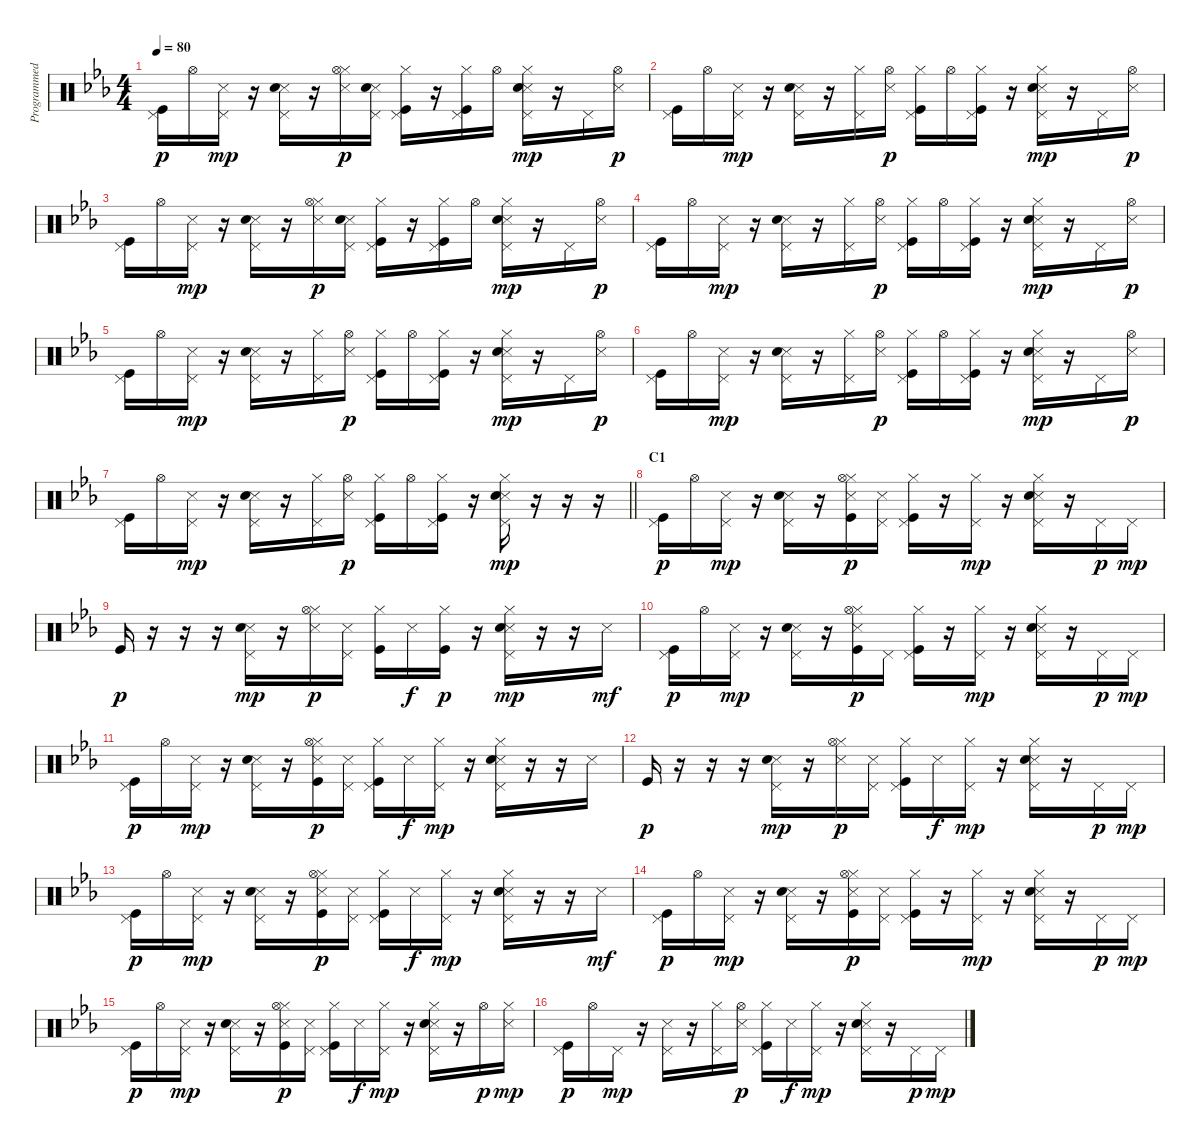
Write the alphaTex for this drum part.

\track ("Programmed Drum" "Programmed") {instrument percussion}
\staff {score}
\articulation defaults
\ts (4 4)
\tempo 80
\clef neutral
\ks eb
("Pedal Hi-Hat (hit)" "Kick (hit)").16{dy p} "Hi-Hat (open)".16 ("Snare (side stick) 3" "Pedal Hi-Hat (hit)").16{dy mp} r.16 ("Snare (side stick) 3" "Snare (hit) 2" "Pedal Hi-Hat (hit)").16 r.16 ("Hi-Hat (closed)" "Snare (side stick) 3" "Hi-Hat (open)").16{dy p} ("Snare (side stick) 3" "Snare (hit) 2" "Pedal Hi-Hat (hit)").16 ("Hi-Hat (closed)" "Pedal Hi-Hat (hit)" "Kick (hit)").16 r.16 ("Hi-Hat (closed)" "Pedal Hi-Hat (hit)" "Kick (hit)").16 "Hi-Hat (open)".16 ("Hi-Hat (closed)" "Snare (side stick) 3" "Snare (hit) 2" "Pedal Hi-Hat (hit)").16{dy mp} r.16 "Pedal Hi-Hat (hit)".16 ("Snare (side stick) 3" "Hi-Hat (open)").16{dy p} |
("Pedal Hi-Hat (hit)" "Kick (hit)").16 "Hi-Hat (open)".16 ("Snare (side stick) 3" "Pedal Hi-Hat (hit)").16{dy mp} r.16 ("Snare (side stick) 3" "Snare (hit) 2" "Pedal Hi-Hat (hit)").16 r.16 ("Hi-Hat (closed)" "Pedal Hi-Hat (hit)").16 ("Snare (side stick) 3" "Hi-Hat (open)").16{dy p} ("Hi-Hat (closed)" "Pedal Hi-Hat (hit)" "Kick (hit)").16 "Hi-Hat (open)".16 ("Hi-Hat (closed)" "Pedal Hi-Hat (hit)" "Kick (hit)").16 r.16 ("Hi-Hat (closed)" "Snare (side stick) 3" "Snare (hit) 2" "Pedal Hi-Hat (hit)").16{dy mp} r.16 "Pedal Hi-Hat (hit)".16 ("Snare (side stick) 3" "Hi-Hat (open)").16{dy p} |
("Pedal Hi-Hat (hit)" "Kick (hit)").16 "Hi-Hat (open)".16 ("Snare (side stick) 3" "Pedal Hi-Hat (hit)").16{dy mp} r.16 ("Snare (side stick) 3" "Snare (hit) 2" "Pedal Hi-Hat (hit)").16 r.16 ("Hi-Hat (closed)" "Snare (side stick) 3" "Hi-Hat (open)").16{dy p} ("Snare (side stick) 3" "Snare (hit) 2" "Pedal Hi-Hat (hit)").16 ("Hi-Hat (closed)" "Pedal Hi-Hat (hit)" "Kick (hit)").16 r.16 ("Hi-Hat (closed)" "Pedal Hi-Hat (hit)" "Kick (hit)").16 "Hi-Hat (open)".16 ("Hi-Hat (closed)" "Snare (side stick) 3" "Snare (hit) 2" "Pedal Hi-Hat (hit)").16{dy mp} r.16 "Pedal Hi-Hat (hit)".16 ("Snare (side stick) 3" "Hi-Hat (open)").16{dy p} |
("Pedal Hi-Hat (hit)" "Kick (hit)").16 "Hi-Hat (open)".16 ("Snare (side stick) 3" "Pedal Hi-Hat (hit)").16{dy mp} r.16 ("Snare (side stick) 3" "Snare (hit) 2" "Pedal Hi-Hat (hit)").16 r.16 ("Hi-Hat (closed)" "Pedal Hi-Hat (hit)").16 ("Snare (side stick) 3" "Hi-Hat (open)").16{dy p} ("Hi-Hat (closed)" "Pedal Hi-Hat (hit)" "Kick (hit)").16 "Hi-Hat (open)".16 ("Hi-Hat (closed)" "Pedal Hi-Hat (hit)" "Kick (hit)").16 r.16 ("Hi-Hat (closed)" "Snare (side stick) 3" "Snare (hit) 2" "Pedal Hi-Hat (hit)").16{dy mp} r.16 "Pedal Hi-Hat (hit)".16 ("Snare (side stick) 3" "Hi-Hat (open)").16{dy p} |
("Pedal Hi-Hat (hit)" "Kick (hit)").16 "Hi-Hat (open)".16 ("Snare (side stick) 3" "Pedal Hi-Hat (hit)").16{dy mp} r.16 ("Snare (side stick) 3" "Snare (hit) 2" "Pedal Hi-Hat (hit)").16 r.16 ("Hi-Hat (closed)" "Pedal Hi-Hat (hit)").16 ("Snare (side stick) 3" "Hi-Hat (open)").16{dy p} ("Hi-Hat (closed)" "Pedal Hi-Hat (hit)" "Kick (hit)").16 "Hi-Hat (open)".16 ("Hi-Hat (closed)" "Pedal Hi-Hat (hit)" "Kick (hit)").16 r.16 ("Hi-Hat (closed)" "Snare (side stick) 3" "Snare (hit) 2" "Pedal Hi-Hat (hit)").16{dy mp} r.16 "Pedal Hi-Hat (hit)".16 ("Snare (side stick) 3" "Hi-Hat (open)").16{dy p} |
("Pedal Hi-Hat (hit)" "Kick (hit)").16 "Hi-Hat (open)".16 ("Snare (side stick) 3" "Pedal Hi-Hat (hit)").16{dy mp} r.16 ("Snare (side stick) 3" "Snare (hit) 2" "Pedal Hi-Hat (hit)").16 r.16 ("Hi-Hat (closed)" "Pedal Hi-Hat (hit)").16 ("Snare (side stick) 3" "Hi-Hat (open)").16{dy p} ("Hi-Hat (closed)" "Pedal Hi-Hat (hit)" "Kick (hit)").16 "Hi-Hat (open)".16 ("Hi-Hat (closed)" "Pedal Hi-Hat (hit)" "Kick (hit)").16 r.16 ("Hi-Hat (closed)" "Snare (side stick) 3" "Snare (hit) 2" "Pedal Hi-Hat (hit)").16{dy mp} r.16 "Pedal Hi-Hat (hit)".16 ("Snare (side stick) 3" "Hi-Hat (open)").16{dy p} |
\barLineRight lightlight
("Pedal Hi-Hat (hit)" "Kick (hit)").16 "Hi-Hat (open)".16 ("Snare (side stick) 3" "Pedal Hi-Hat (hit)").16{dy mp} r.16 ("Snare (side stick) 3" "Snare (hit) 2" "Pedal Hi-Hat (hit)").16 r.16 ("Hi-Hat (closed)" "Pedal Hi-Hat (hit)").16 ("Snare (side stick) 3" "Hi-Hat (open)").16{dy p} ("Hi-Hat (closed)" "Pedal Hi-Hat (hit)" "Kick (hit)").16 "Hi-Hat (open)".16 ("Hi-Hat (closed)" "Pedal Hi-Hat (hit)" "Kick (hit)").16 r.16 ("Hi-Hat (closed)" "Snare (side stick) 3" "Snare (hit) 2" "Pedal Hi-Hat (hit)").16{dy mp} r.16 r.16 r.16 |
\section ("" "C1")
("Pedal Hi-Hat (hit)" "Kick (hit)").16{dy p} "Hi-Hat (open)".16 ("Snare (side stick) 3" "Pedal Hi-Hat (hit)").16{dy mp} r.16 ("Snare (side stick) 3" "Snare (hit) 2" "Pedal Hi-Hat (hit)").16 r.16 ("Hi-Hat (closed)" "Snare (side stick) 3" "Hi-Hat (open)" "Kick (hit)").16{dy p} ("Snare (side stick) 3" "Pedal Hi-Hat (hit)").16 ("Hi-Hat (closed)" "Pedal Hi-Hat (hit)" "Kick (hit)").16 r.16 ("Hi-Hat (closed)" "Pedal Hi-Hat (hit)").16{dy mp} r.16 ("Hi-Hat (closed)" "Snare (side stick) 3" "Snare (hit) 2" "Pedal Hi-Hat (hit)").16 r.16 "Pedal Hi-Hat (hit)".16{dy p} "Pedal Hi-Hat (hit)".16{dy mp} |
"Kick (hit)".16{dy p} r.16 r.16 r.16 ("Snare (side stick) 3" "Snare (hit) 2" "Pedal Hi-Hat (hit)").16{dy mp} r.16 ("Hi-Hat (closed)" "Snare (side stick) 3" "Hi-Hat (open)").16{dy p} ("Snare (side stick) 3" "Pedal Hi-Hat (hit)").16 ("Hi-Hat (closed)" "Kick (hit)").16 "Snare (side stick) 3".16{dy f} ("Hi-Hat (closed)" "Kick (hit)").16{dy p} r.16 ("Hi-Hat (closed)" "Snare (side stick) 3" "Snare (hit) 2" "Pedal Hi-Hat (hit)").16{dy mp} r.16 r.16 "Snare (side stick) 3".16{dy mf} |
("Pedal Hi-Hat (hit)" "Kick (hit)").16{dy p} "Hi-Hat (open)".16 ("Snare (side stick) 3" "Pedal Hi-Hat (hit)").16{dy mp} r.16 ("Snare (side stick) 3" "Snare (hit) 2" "Pedal Hi-Hat (hit)").16 r.16 ("Hi-Hat (closed)" "Snare (side stick) 3" "Hi-Hat (open)" "Kick (hit)").16{dy p} "Pedal Hi-Hat (hit)".16 ("Hi-Hat (closed)" "Pedal Hi-Hat (hit)" "Kick (hit)").16 r.16 ("Hi-Hat (closed)" "Pedal Hi-Hat (hit)").16{dy mp} r.16 ("Hi-Hat (closed)" "Snare (side stick) 3" "Snare (hit) 2" "Pedal Hi-Hat (hit)").16 r.16 "Pedal Hi-Hat (hit)".16{dy p} "Pedal Hi-Hat (hit)".16{dy mp} |
("Pedal Hi-Hat (hit)" "Kick (hit)").16{dy p} "Hi-Hat (open)".16 ("Snare (side stick) 3" "Pedal Hi-Hat (hit)").16{dy mp} r.16 ("Snare (side stick) 3" "Snare (hit) 2" "Pedal Hi-Hat (hit)").16 r.16 ("Hi-Hat (closed)" "Snare (side stick) 3" "Hi-Hat (open)" "Kick (hit)").16{dy p} ("Snare (side stick) 3" "Pedal Hi-Hat (hit)").16 ("Hi-Hat (closed)" "Pedal Hi-Hat (hit)" "Kick (hit)").16 "Snare (side stick) 3".16{dy f} ("Hi-Hat (closed)" "Pedal Hi-Hat (hit)").16{dy mp} r.16 ("Hi-Hat (closed)" "Snare (side stick) 3" "Snare (hit) 2" "Pedal Hi-Hat (hit)").16 r.16 r.16 "Snare (side stick) 3".16 |
"Kick (hit)".16{dy p} r.16 r.16 r.16 ("Snare (side stick) 3" "Snare (hit) 2" "Pedal Hi-Hat (hit)").16{dy mp} r.16 ("Hi-Hat (closed)" "Snare (side stick) 3" "Hi-Hat (open)").16{dy p} ("Snare (side stick) 3" "Pedal Hi-Hat (hit)").16 ("Hi-Hat (closed)" "Pedal Hi-Hat (hit)" "Kick (hit)").16 "Snare (side stick) 3".16{dy f} ("Hi-Hat (closed)" "Pedal Hi-Hat (hit)").16{dy mp} r.16 ("Hi-Hat (closed)" "Snare (side stick) 3" "Snare (hit) 2" "Pedal Hi-Hat (hit)").16 r.16 "Pedal Hi-Hat (hit)".16{dy p} "Pedal Hi-Hat (hit)".16{dy mp} |
("Pedal Hi-Hat (hit)" "Kick (hit)").16{dy p} "Hi-Hat (open)".16 ("Snare (side stick) 3" "Pedal Hi-Hat (hit)").16{dy mp} r.16 ("Snare (side stick) 3" "Snare (hit) 2" "Pedal Hi-Hat (hit)").16 r.16 ("Hi-Hat (closed)" "Snare (side stick) 3" "Hi-Hat (open)" "Kick (hit)").16{dy p} ("Snare (side stick) 3" "Pedal Hi-Hat (hit)").16 ("Hi-Hat (closed)" "Pedal Hi-Hat (hit)" "Kick (hit)").16 "Snare (side stick) 3".16{dy f} ("Hi-Hat (closed)" "Pedal Hi-Hat (hit)").16{dy mp} r.16 ("Hi-Hat (closed)" "Snare (side stick) 3" "Snare (hit) 2" "Pedal Hi-Hat (hit)").16 r.16 r.16 "Snare (side stick) 3".16{dy mf} |
("Pedal Hi-Hat (hit)" "Kick (hit)").16{dy p} "Hi-Hat (open)".16 ("Snare (side stick) 3" "Pedal Hi-Hat (hit)").16{dy mp} r.16 ("Snare (side stick) 3" "Snare (hit) 2" "Pedal Hi-Hat (hit)").16 r.16 ("Hi-Hat (closed)" "Snare (side stick) 3" "Hi-Hat (open)" "Kick (hit)").16{dy p} ("Snare (side stick) 3" "Pedal Hi-Hat (hit)").16 ("Hi-Hat (closed)" "Pedal Hi-Hat (hit)" "Kick (hit)").16 r.16 ("Hi-Hat (closed)" "Pedal Hi-Hat (hit)").16{dy mp} r.16 ("Hi-Hat (closed)" "Snare (side stick) 3" "Snare (hit) 2" "Pedal Hi-Hat (hit)").16 r.16 "Pedal Hi-Hat (hit)".16{dy p} "Pedal Hi-Hat (hit)".16{dy mp} |
("Pedal Hi-Hat (hit)" "Kick (hit)").16{dy p} "Hi-Hat (open)".16 ("Snare (side stick) 3" "Pedal Hi-Hat (hit)").16{dy mp} r.16 ("Snare (side stick) 3" "Snare (hit) 2" "Pedal Hi-Hat (hit)").16 r.16 ("Hi-Hat (closed)" "Snare (side stick) 3" "Hi-Hat (open)" "Kick (hit)").16{dy p} ("Snare (side stick) 3" "Pedal Hi-Hat (hit)").16 ("Hi-Hat (closed)" "Pedal Hi-Hat (hit)" "Kick (hit)").16 "Snare (side stick) 3".16{dy f} ("Hi-Hat (closed)" "Pedal Hi-Hat (hit)").16{dy mp} r.16 ("Hi-Hat (closed)" "Snare (side stick) 3" "Snare (hit) 2" "Pedal Hi-Hat (hit)").16 r.16 "Hi-Hat (open)".16{dy p} ("Snare (side stick) 3" "Hi-Hat (closed)").16{dy mp} |
("Pedal Hi-Hat (hit)" "Kick (hit)").16{dy p} "Hi-Hat (open)".16 "Pedal Hi-Hat (hit)".16{dy mp} r.16 ("Snare (side stick) 3" "Pedal Hi-Hat (hit)").16 r.16 ("Hi-Hat (closed)" "Pedal Hi-Hat (hit)").16 ("Snare (side stick) 3" "Hi-Hat (open)").16{dy p} ("Hi-Hat (closed)" "Pedal Hi-Hat (hit)" "Kick (hit)").16 "Snare (side stick) 3".16{dy f} ("Hi-Hat (closed)" "Pedal Hi-Hat (hit)").16{dy mp} r.16 ("Hi-Hat (closed)" "Snare (side stick) 3" "Snare (hit) 2" "Pedal Hi-Hat (hit)").16 r.16 "Pedal Hi-Hat (hit)".16{dy p} "Pedal Hi-Hat (hit)".16{dy mp}
